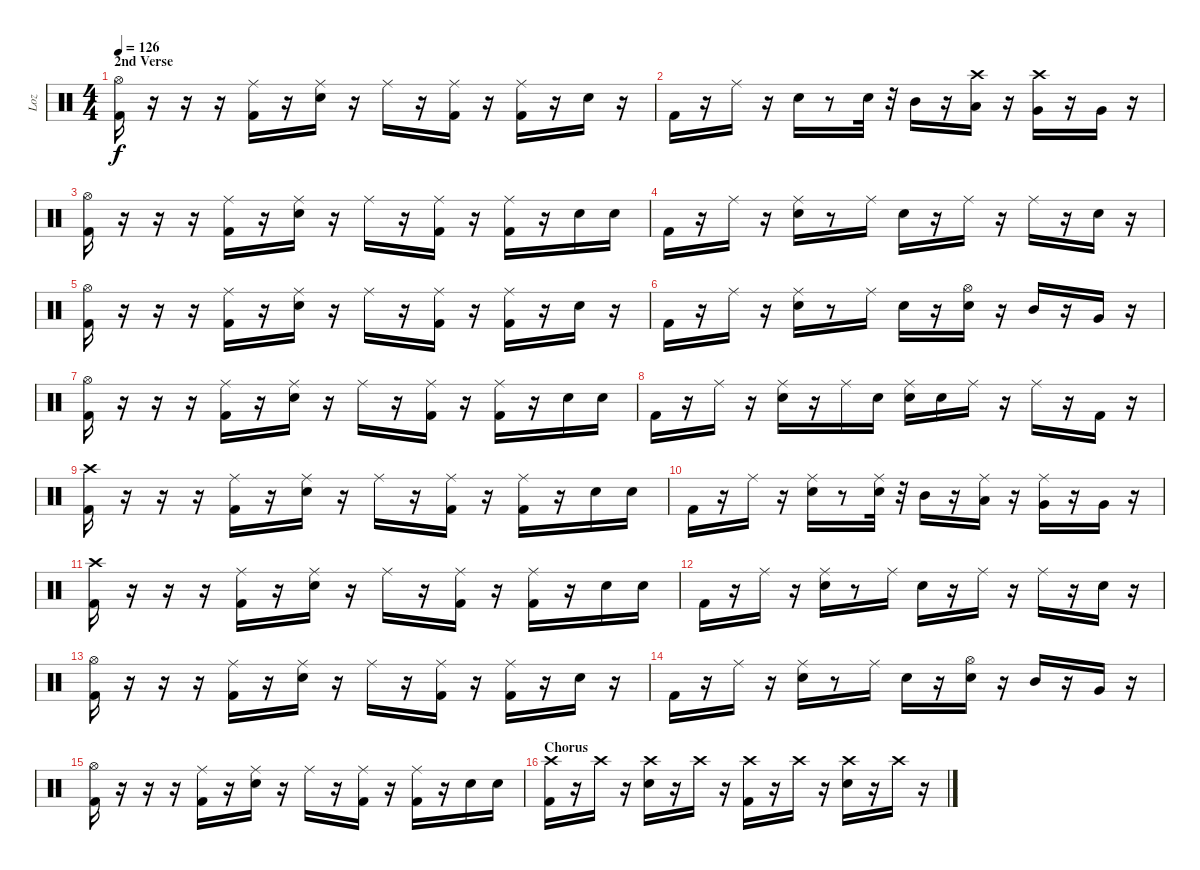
\track ("Loz" "Loz") {instrument percussion}
\staff {score}
\articulation defaults
\ts (4 4)
\section ("" "2nd Verse")
\tempo 126
\clef neutral
\ks c
("Hi-Hat (open)" "Kick (hit) 2").16{dy f volume 11} r.16 r.16 r.16 ("Ride (middle)" "Kick (hit) 2").16 r.16 ("Ride (middle)" "Snare (hit) 2").16 r.16 "Ride (middle)".16 r.16 ("Ride (middle)" "Kick (hit) 2").16 r.16 ("Ride (middle)" "Kick (hit) 2").16 r.16 "Snare (hit) 2".16 r.16 |
"Kick (hit) 2".16 r.16 "Ride (middle)".16 r.16 "Snare (hit) 2".16 r.8 "Snare (hit) 2".32 r.32 "Mid Tom (hit)".16 r.16 ("Crash high (hit)" "Low Tom (hit)").16 r.16 ("Crash high (hit)" "Very Low Tom (hit)").16 r.16 "Very Low Tom (hit)".16 r.16 |
("Hi-Hat (open)" "Kick (hit) 2").16 r.16 r.16 r.16 ("Ride (middle)" "Kick (hit) 2").16 r.16 ("Ride (middle)" "Snare (hit) 2").16 r.16 "Ride (middle)".16 r.16 ("Ride (middle)" "Kick (hit) 2").16 r.16 ("Ride (middle)" "Kick (hit) 2").16 r.16 "Snare (hit) 2".16 "Snare (hit) 2".16 |
"Kick (hit) 2".16 r.16 "Ride (middle)".16 r.16 ("Ride (middle)" "Snare (hit) 2").16 r.8 "Ride (middle)".16 "Snare (hit) 2".16 r.16 "Ride (middle)".16 r.16 "Ride (middle)".16 r.16 "Snare (hit) 2".16 r.16 |
("Hi-Hat (open)" "Kick (hit) 2").16 r.16 r.16 r.16 ("Ride (middle)" "Kick (hit) 2").16 r.16 ("Ride (middle)" "Snare (hit) 2").16 r.16 "Ride (middle)".16 r.16 ("Ride (middle)" "Kick (hit) 2").16 r.16 ("Ride (middle)" "Kick (hit) 2").16 r.16 "Snare (hit) 2".16 r.16 |
"Kick (hit) 2".16 r.16 "Ride (middle)".16 r.16 ("Ride (middle)" "Snare (hit) 2").16 r.8 "Ride (middle)".16 "Snare (hit) 2".16 r.16 ("Hi-Hat (open)" "Snare (hit) 2").16 r.16 "Mid Tom (hit)".16 r.16 "Very Low Tom (hit)".16 r.16 |
("Hi-Hat (open)" "Kick (hit) 2").16 r.16 r.16 r.16 ("Ride (middle)" "Kick (hit) 2").16 r.16 ("Ride (middle)" "Snare (hit) 2").16 r.16 "Ride (middle)".16 r.16 ("Ride (middle)" "Kick (hit) 2").16 r.16 ("Ride (middle)" "Kick (hit) 2").16 r.16 "Snare (hit) 2".16 "Snare (hit) 2".16 |
"Kick (hit) 2".16 r.16 "Ride (middle)".16 r.16 ("Ride (middle)" "Snare (hit) 2").16 r.16 "Ride (middle)".16 "Snare (hit) 2".16 ("Ride (middle)" "Snare (hit) 2").16 "Snare (hit) 2".16 "Ride (middle)".16 r.16 "Ride (middle)".16 r.16 "Kick (hit) 2".16 r.16 |
("Crash high (hit)" "Kick (hit) 2").16 r.16 r.16 r.16 ("Ride (middle)" "Kick (hit) 2").16 r.16 ("Ride (middle)" "Snare (hit) 2").16 r.16 "Ride (middle)".16 r.16 ("Ride (middle)" "Kick (hit) 2").16 r.16 ("Ride (middle)" "Kick (hit) 2").16 r.16 "Snare (hit) 2".16 "Snare (hit) 2".16 |
"Kick (hit) 2".16 r.16 "Ride (middle)".16 r.16 ("Ride (middle)" "Snare (hit) 2").16 r.8 ("Ride (middle)" "Snare (hit) 2").32 r.32 "Mid Tom (hit)".16 r.16 ("Ride (middle)" "Low Tom (hit)").16 r.16 ("Ride (middle)" "Very Low Tom (hit)").16 r.16 "Very Low Tom (hit)".16 r.16 |
("Crash high (hit)" "Kick (hit) 2").16 r.16 r.16 r.16 ("Ride (middle)" "Kick (hit) 2").16 r.16 ("Ride (middle)" "Snare (hit) 2").16 r.16 "Ride (middle)".16 r.16 ("Ride (middle)" "Kick (hit) 2").16 r.16 ("Ride (middle)" "Kick (hit) 2").16 r.16 "Snare (hit) 2".16 "Snare (hit) 2".16 |
"Kick (hit) 2".16 r.16 "Ride (middle)".16 r.16 ("Ride (middle)" "Snare (hit) 2").16 r.8 "Ride (middle)".16 "Snare (hit) 2".16 r.16 "Ride (middle)".16 r.16 "Ride (middle)".16 r.16 "Snare (hit) 2".16 r.16 |
("Hi-Hat (open)" "Kick (hit) 2").16 r.16 r.16 r.16 ("Ride (middle)" "Kick (hit) 2").16 r.16 ("Ride (middle)" "Snare (hit) 2").16 r.16 "Ride (middle)".16 r.16 ("Ride (middle)" "Kick (hit) 2").16 r.16 ("Ride (middle)" "Kick (hit) 2").16 r.16 "Snare (hit) 2".16 r.16 |
"Kick (hit) 2".16 r.16 "Ride (middle)".16 r.16 ("Ride (middle)" "Snare (hit) 2").16 r.8 "Ride (middle)".16 "Snare (hit) 2".16 r.16 ("Hi-Hat (open)" "Snare (hit) 2").16 r.16 "Mid Tom (hit)".16 r.16 "Very Low Tom (hit)".16 r.16 |
("Hi-Hat (open)" "Kick (hit) 2").16 r.16 r.16 r.16 ("Ride (middle)" "Kick (hit) 2").16 r.16 ("Ride (middle)" "Snare (hit) 2").16 r.16 "Ride (middle)".16 r.16 ("Ride (middle)" "Kick (hit) 2").16 r.16 ("Ride (middle)" "Kick (hit) 2").16 r.16 "Snare (hit) 2".16 "Snare (hit) 2".16 |
\section ("" "Chorus")
("Crash high (hit)" "Kick (hit) 2").16 r.16 "Crash high (hit)".16 r.16 ("Crash high (hit)" "Snare (hit) 2").16 r.16 "Crash high (hit)".16 r.16 ("Crash high (hit)" "Kick (hit) 2").16 r.16 "Crash high (hit)".16 r.16 ("Crash high (hit)" "Snare (hit) 2").16 r.16 "Crash high (hit)".16 r.16
